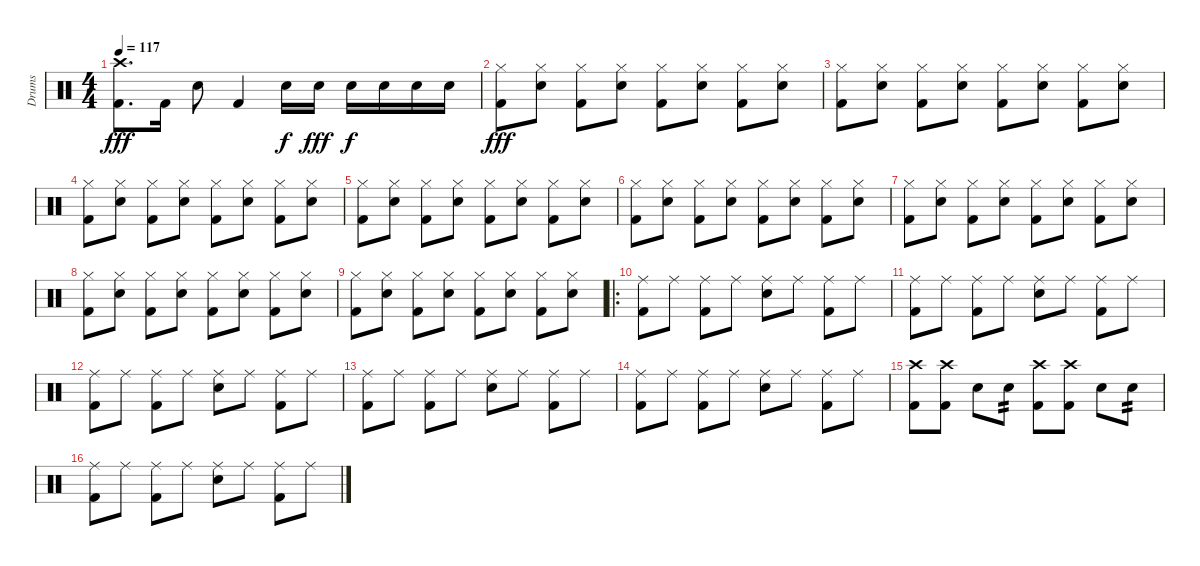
\track ("Drums" "Drums") {instrument percussion}
\staff {score}
\articulation defaults
\ts (4 4)
\tempo 117
\clef neutral
\ks c
("Crash high (hit)" "Kick (hit) 2").8{d dy fff} "Kick (hit) 2".16 "Snare (hit) 2".8 "Kick (hit) 2".4 "Snare (hit) 2".16{dy f} "Snare (hit) 2".16{dy fff} "Snare (hit) 2".16{dy f} "Snare (hit) 2".16 "Snare (hit) 2".16 "Snare (hit) 2".16 |
("Hi-Hat (closed)" "Kick (hit) 2").8{dy fff} ("Hi-Hat (closed)" "Snare (hit) 2").8 ("Hi-Hat (closed)" "Kick (hit) 2").8 ("Hi-Hat (closed)" "Snare (hit) 2").8 ("Hi-Hat (closed)" "Kick (hit) 2").8 ("Hi-Hat (closed)" "Snare (hit) 2").8 ("Hi-Hat (closed)" "Kick (hit) 2").8 ("Hi-Hat (closed)" "Snare (hit) 2").8 |
("Hi-Hat (closed)" "Kick (hit) 2").8 ("Hi-Hat (closed)" "Snare (hit) 2").8 ("Hi-Hat (closed)" "Kick (hit) 2").8 ("Hi-Hat (closed)" "Snare (hit) 2").8 ("Hi-Hat (closed)" "Kick (hit) 2").8 ("Hi-Hat (closed)" "Snare (hit) 2").8 ("Hi-Hat (closed)" "Kick (hit) 2").8 ("Hi-Hat (closed)" "Snare (hit) 2").8 |
("Hi-Hat (closed)" "Kick (hit) 2").8 ("Hi-Hat (closed)" "Snare (hit) 2").8 ("Hi-Hat (closed)" "Kick (hit) 2").8 ("Hi-Hat (closed)" "Snare (hit) 2").8 ("Hi-Hat (closed)" "Kick (hit) 2").8 ("Hi-Hat (closed)" "Snare (hit) 2").8 ("Hi-Hat (closed)" "Kick (hit) 2").8 ("Hi-Hat (closed)" "Snare (hit) 2").8 |
("Hi-Hat (closed)" "Kick (hit) 2").8 ("Hi-Hat (closed)" "Snare (hit) 2").8 ("Hi-Hat (closed)" "Kick (hit) 2").8 ("Hi-Hat (closed)" "Snare (hit) 2").8 ("Hi-Hat (closed)" "Kick (hit) 2").8 ("Hi-Hat (closed)" "Snare (hit) 2").8 ("Hi-Hat (closed)" "Kick (hit) 2").8 ("Hi-Hat (closed)" "Snare (hit) 2").8 |
("Hi-Hat (closed)" "Kick (hit) 2").8 ("Hi-Hat (closed)" "Snare (hit) 2").8 ("Hi-Hat (closed)" "Kick (hit) 2").8 ("Hi-Hat (closed)" "Snare (hit) 2").8 ("Hi-Hat (closed)" "Kick (hit) 2").8 ("Hi-Hat (closed)" "Snare (hit) 2").8 ("Hi-Hat (closed)" "Kick (hit) 2").8 ("Hi-Hat (closed)" "Snare (hit) 2").8 |
("Hi-Hat (closed)" "Kick (hit) 2").8 ("Hi-Hat (closed)" "Snare (hit) 2").8 ("Hi-Hat (closed)" "Kick (hit) 2").8 ("Hi-Hat (closed)" "Snare (hit) 2").8 ("Hi-Hat (closed)" "Kick (hit) 2").8 ("Hi-Hat (closed)" "Snare (hit) 2").8 ("Hi-Hat (closed)" "Kick (hit) 2").8 ("Hi-Hat (closed)" "Snare (hit) 2").8 |
("Hi-Hat (closed)" "Kick (hit) 2").8 ("Hi-Hat (closed)" "Snare (hit) 2").8 ("Hi-Hat (closed)" "Kick (hit) 2").8 ("Hi-Hat (closed)" "Snare (hit) 2").8 ("Hi-Hat (closed)" "Kick (hit) 2").8 ("Hi-Hat (closed)" "Snare (hit) 2").8 ("Hi-Hat (closed)" "Kick (hit) 2").8 ("Hi-Hat (closed)" "Snare (hit) 2").8 |
("Hi-Hat (closed)" "Kick (hit) 2").8 ("Hi-Hat (closed)" "Snare (hit) 2").8 ("Hi-Hat (closed)" "Kick (hit) 2").8 ("Hi-Hat (closed)" "Snare (hit) 2").8 ("Hi-Hat (closed)" "Kick (hit) 2").8 ("Hi-Hat (closed)" "Snare (hit) 2").8 ("Hi-Hat (closed)" "Kick (hit) 2").8 ("Hi-Hat (closed)" "Snare (hit) 2").8 |
\ro
("Ride (middle)" "Kick (hit) 2").8 "Ride (middle)".8 ("Ride (middle)" "Kick (hit) 2").8 "Ride (middle)".8 ("Ride (middle)" "Snare (hit) 2").8 "Ride (middle)".8 ("Ride (middle)" "Kick (hit) 2").8 "Ride (middle)".8 |
("Ride (middle)" "Kick (hit) 2").8 "Ride (middle)".8 ("Ride (middle)" "Kick (hit) 2").8 "Ride (middle)".8 ("Ride (middle)" "Snare (hit) 2").8 "Ride (middle)".8 ("Ride (middle)" "Kick (hit) 2").8 "Ride (middle)".8 |
("Ride (middle)" "Kick (hit) 2").8 "Ride (middle)".8 ("Ride (middle)" "Kick (hit) 2").8 "Ride (middle)".8 ("Ride (middle)" "Snare (hit) 2").8 "Ride (middle)".8 ("Ride (middle)" "Kick (hit) 2").8 "Ride (middle)".8 |
("Ride (middle)" "Kick (hit) 2").8 "Ride (middle)".8 ("Ride (middle)" "Kick (hit) 2").8 "Ride (middle)".8 ("Ride (middle)" "Snare (hit) 2").8 "Ride (middle)".8 ("Ride (middle)" "Kick (hit) 2").8 "Ride (middle)".8 |
("Ride (middle)" "Kick (hit) 2").8 "Ride (middle)".8 ("Ride (middle)" "Kick (hit) 2").8 "Ride (middle)".8 ("Ride (middle)" "Snare (hit) 2").8 "Ride (middle)".8 ("Ride (middle)" "Kick (hit) 2").8 "Ride (middle)".8 |
("Crash high (hit)" "Kick (hit) 2").8 ("Crash high (hit)" "Kick (hit) 2").8 "Snare (hit) 2".8 "Snare (hit) 2".8{tp 2} ("Crash high (hit)" "Kick (hit) 2").8 ("Crash high (hit)" "Kick (hit) 2").8 "Snare (hit) 2".8 "Snare (hit) 2".8{tp 2} |
("Ride (middle)" "Kick (hit) 2").8 "Ride (middle)".8 ("Ride (middle)" "Kick (hit) 2").8 "Ride (middle)".8 ("Ride (middle)" "Snare (hit) 2").8 "Ride (middle)".8 ("Ride (middle)" "Kick (hit) 2").8 "Ride (middle)".8
